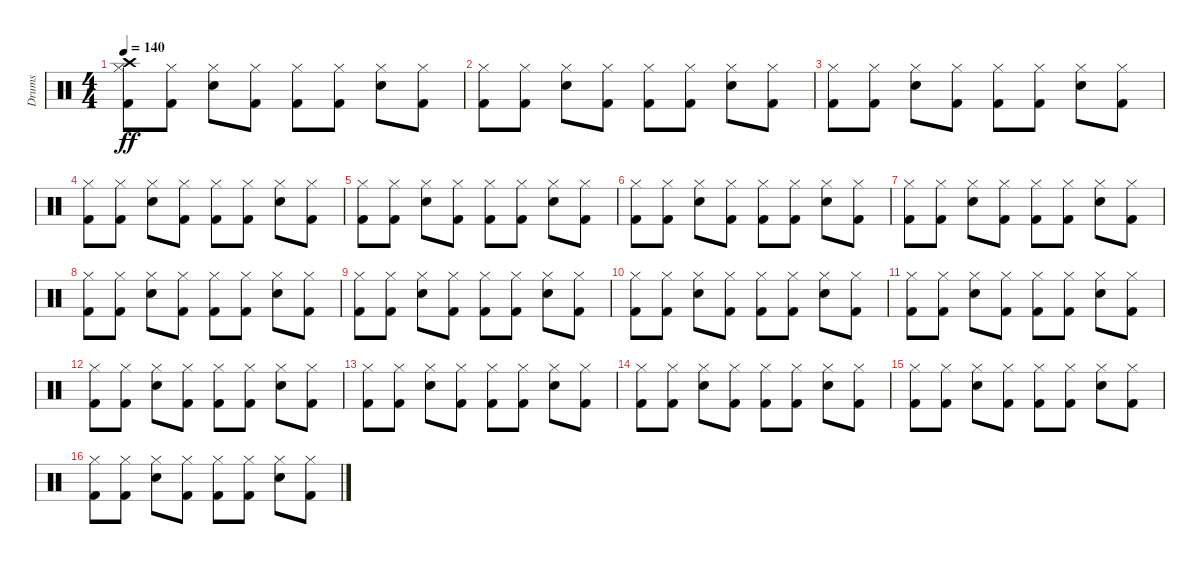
\track ("Drums" "Drums") {instrument percussion}
\staff {score}
\articulation defaults
\ts (4 4)
\tempo 140
\clef neutral
\ks c
("Crash high (hit)" "Hi-Hat (closed)" "Kick (hit) 2").8{dy ff volume 12} ("Hi-Hat (closed)" "Kick (hit) 2").8 ("Hi-Hat (closed)" "Snare (hit) 2").8 ("Hi-Hat (closed)" "Kick (hit) 2").8 ("Hi-Hat (closed)" "Kick (hit) 2").8 ("Hi-Hat (closed)" "Kick (hit) 2").8 ("Hi-Hat (closed)" "Snare (hit) 2").8 ("Hi-Hat (closed)" "Kick (hit) 2").8 |
("Hi-Hat (closed)" "Kick (hit) 2").8 ("Hi-Hat (closed)" "Kick (hit) 2").8 ("Hi-Hat (closed)" "Snare (hit) 2").8 ("Hi-Hat (closed)" "Kick (hit) 2").8 ("Hi-Hat (closed)" "Kick (hit) 2").8 ("Hi-Hat (closed)" "Kick (hit) 2").8 ("Hi-Hat (closed)" "Snare (hit) 2").8 ("Hi-Hat (closed)" "Kick (hit) 2").8 |
("Hi-Hat (closed)" "Kick (hit) 2").8 ("Hi-Hat (closed)" "Kick (hit) 2").8 ("Hi-Hat (closed)" "Snare (hit) 2").8 ("Hi-Hat (closed)" "Kick (hit) 2").8 ("Hi-Hat (closed)" "Kick (hit) 2").8 ("Hi-Hat (closed)" "Kick (hit) 2").8 ("Hi-Hat (closed)" "Snare (hit) 2").8 ("Hi-Hat (closed)" "Kick (hit) 2").8 |
("Hi-Hat (closed)" "Kick (hit) 2").8 ("Hi-Hat (closed)" "Kick (hit) 2").8 ("Hi-Hat (closed)" "Snare (hit) 2").8 ("Hi-Hat (closed)" "Kick (hit) 2").8 ("Hi-Hat (closed)" "Kick (hit) 2").8 ("Hi-Hat (closed)" "Kick (hit) 2").8 ("Hi-Hat (closed)" "Snare (hit) 2").8 ("Hi-Hat (closed)" "Kick (hit) 2").8 |
("Hi-Hat (closed)" "Kick (hit) 2").8 ("Hi-Hat (closed)" "Kick (hit) 2").8 ("Hi-Hat (closed)" "Snare (hit) 2").8 ("Hi-Hat (closed)" "Kick (hit) 2").8 ("Hi-Hat (closed)" "Kick (hit) 2").8 ("Hi-Hat (closed)" "Kick (hit) 2").8 ("Hi-Hat (closed)" "Snare (hit) 2").8 ("Hi-Hat (closed)" "Kick (hit) 2").8 |
("Hi-Hat (closed)" "Kick (hit) 2").8 ("Hi-Hat (closed)" "Kick (hit) 2").8 ("Hi-Hat (closed)" "Snare (hit) 2").8 ("Hi-Hat (closed)" "Kick (hit) 2").8 ("Hi-Hat (closed)" "Kick (hit) 2").8 ("Hi-Hat (closed)" "Kick (hit) 2").8 ("Hi-Hat (closed)" "Snare (hit) 2").8 ("Hi-Hat (closed)" "Kick (hit) 2").8 |
("Hi-Hat (closed)" "Kick (hit) 2").8 ("Hi-Hat (closed)" "Kick (hit) 2").8 ("Hi-Hat (closed)" "Snare (hit) 2").8 ("Hi-Hat (closed)" "Kick (hit) 2").8 ("Hi-Hat (closed)" "Kick (hit) 2").8 ("Hi-Hat (closed)" "Kick (hit) 2").8 ("Hi-Hat (closed)" "Snare (hit) 2").8 ("Hi-Hat (closed)" "Kick (hit) 2").8 |
("Hi-Hat (closed)" "Kick (hit) 2").8 ("Hi-Hat (closed)" "Kick (hit) 2").8 ("Hi-Hat (closed)" "Snare (hit) 2").8 ("Hi-Hat (closed)" "Kick (hit) 2").8 ("Hi-Hat (closed)" "Kick (hit) 2").8 ("Hi-Hat (closed)" "Kick (hit) 2").8 ("Hi-Hat (closed)" "Snare (hit) 2").8 ("Hi-Hat (closed)" "Kick (hit) 2").8 |
("Hi-Hat (closed)" "Kick (hit) 2").8 ("Hi-Hat (closed)" "Kick (hit) 2").8 ("Hi-Hat (closed)" "Snare (hit) 2").8 ("Hi-Hat (closed)" "Kick (hit) 2").8 ("Hi-Hat (closed)" "Kick (hit) 2").8 ("Hi-Hat (closed)" "Kick (hit) 2").8 ("Hi-Hat (closed)" "Snare (hit) 2").8 ("Hi-Hat (closed)" "Kick (hit) 2").8 |
("Hi-Hat (closed)" "Kick (hit) 2").8 ("Hi-Hat (closed)" "Kick (hit) 2").8 ("Hi-Hat (closed)" "Snare (hit) 2").8 ("Hi-Hat (closed)" "Kick (hit) 2").8 ("Hi-Hat (closed)" "Kick (hit) 2").8 ("Hi-Hat (closed)" "Kick (hit) 2").8 ("Hi-Hat (closed)" "Snare (hit) 2").8 ("Hi-Hat (closed)" "Kick (hit) 2").8 |
("Hi-Hat (closed)" "Kick (hit) 2").8 ("Hi-Hat (closed)" "Kick (hit) 2").8 ("Hi-Hat (closed)" "Snare (hit) 2").8 ("Hi-Hat (closed)" "Kick (hit) 2").8 ("Hi-Hat (closed)" "Kick (hit) 2").8 ("Hi-Hat (closed)" "Kick (hit) 2").8 ("Hi-Hat (closed)" "Snare (hit) 2").8 ("Hi-Hat (closed)" "Kick (hit) 2").8 |
("Hi-Hat (closed)" "Kick (hit) 2").8 ("Hi-Hat (closed)" "Kick (hit) 2").8 ("Hi-Hat (closed)" "Snare (hit) 2").8 ("Hi-Hat (closed)" "Kick (hit) 2").8 ("Hi-Hat (closed)" "Kick (hit) 2").8 ("Hi-Hat (closed)" "Kick (hit) 2").8 ("Hi-Hat (closed)" "Snare (hit) 2").8 ("Hi-Hat (closed)" "Kick (hit) 2").8 |
("Hi-Hat (closed)" "Kick (hit) 2").8 ("Hi-Hat (closed)" "Kick (hit) 2").8 ("Hi-Hat (closed)" "Snare (hit) 2").8 ("Hi-Hat (closed)" "Kick (hit) 2").8 ("Hi-Hat (closed)" "Kick (hit) 2").8 ("Hi-Hat (closed)" "Kick (hit) 2").8 ("Hi-Hat (closed)" "Snare (hit) 2").8 ("Hi-Hat (closed)" "Kick (hit) 2").8 |
("Hi-Hat (closed)" "Kick (hit) 2").8 ("Hi-Hat (closed)" "Kick (hit) 2").8 ("Hi-Hat (closed)" "Snare (hit) 2").8 ("Hi-Hat (closed)" "Kick (hit) 2").8 ("Hi-Hat (closed)" "Kick (hit) 2").8 ("Hi-Hat (closed)" "Kick (hit) 2").8 ("Hi-Hat (closed)" "Snare (hit) 2").8 ("Hi-Hat (closed)" "Kick (hit) 2").8 |
("Hi-Hat (closed)" "Kick (hit) 2").8 ("Hi-Hat (closed)" "Kick (hit) 2").8 ("Hi-Hat (closed)" "Snare (hit) 2").8 ("Hi-Hat (closed)" "Kick (hit) 2").8 ("Hi-Hat (closed)" "Kick (hit) 2").8 ("Hi-Hat (closed)" "Kick (hit) 2").8 ("Hi-Hat (closed)" "Snare (hit) 2").8 ("Hi-Hat (closed)" "Kick (hit) 2").8 |
("Hi-Hat (closed)" "Kick (hit) 2").8 ("Hi-Hat (closed)" "Kick (hit) 2").8 ("Hi-Hat (closed)" "Snare (hit) 2").8 ("Hi-Hat (closed)" "Kick (hit) 2").8 ("Hi-Hat (closed)" "Kick (hit) 2").8 ("Hi-Hat (closed)" "Kick (hit) 2").8 ("Hi-Hat (closed)" "Snare (hit) 2").8 ("Hi-Hat (closed)" "Kick (hit) 2").8
